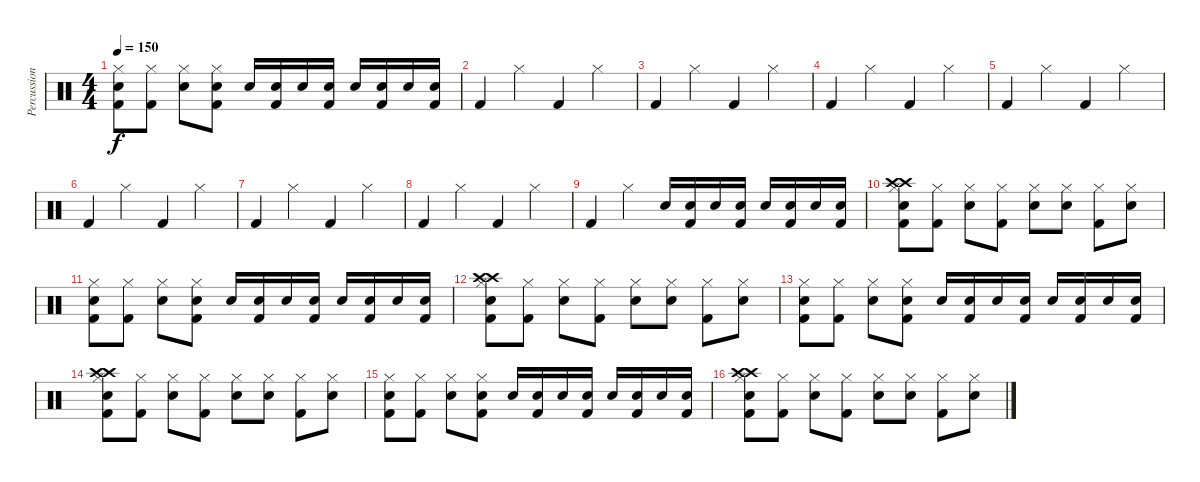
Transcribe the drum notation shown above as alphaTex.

\track ("Percussion" "Percussion") {instrument percussion}
\staff {score}
\articulation defaults
\ts (4 4)
\tempo 150
\clef neutral
\ks c
("Hi-Hat (closed)" "Electric Snare (hit)" "Kick (hit) 2").8{dy f} ("Hi-Hat (closed)" "Kick (hit) 2").8 ("Hi-Hat (closed)" "Snare (hit) 2").8 ("Hi-Hat (closed)" "Electric Snare (hit)" "Kick (hit) 2").8 "Electric Snare (hit)".16 ("Electric Snare (hit)" "Kick (hit) 2").16 "Electric Snare (hit)".16 ("Electric Snare (hit)" "Kick (hit) 2").16 "Electric Snare (hit)".16 ("Electric Snare (hit)" "Kick (hit) 2").16 "Electric Snare (hit)".16 ("Electric Snare (hit)" "Kick (hit) 2").16 |
"Kick (hit) 2".4 "Hi-Hat (closed)".4 "Kick (hit) 2".4 "Hi-Hat (closed)".4 |
"Kick (hit) 2".4 "Hi-Hat (closed)".4 "Kick (hit) 2".4 "Hi-Hat (closed)".4 |
"Kick (hit) 2".4 "Hi-Hat (closed)".4 "Kick (hit) 2".4 "Hi-Hat (closed)".4 |
"Kick (hit) 2".4 "Hi-Hat (closed)".4 "Kick (hit) 2".4 "Hi-Hat (closed)".4 |
"Kick (hit) 2".4 "Hi-Hat (closed)".4 "Kick (hit) 2".4 "Hi-Hat (closed)".4 |
"Kick (hit) 2".4 "Hi-Hat (closed)".4 "Kick (hit) 2".4 "Hi-Hat (closed)".4 |
"Kick (hit) 2".4 "Hi-Hat (closed)".4 "Kick (hit) 2".4 "Hi-Hat (closed)".4 |
"Kick (hit) 2".4 "Hi-Hat (closed)".4 "Electric Snare (hit)".16 ("Kick (hit) 2" "Electric Snare (hit)").16 "Electric Snare (hit)".16 ("Kick (hit) 2" "Electric Snare (hit)").16 "Electric Snare (hit)".16 ("Kick (hit) 2" "Electric Snare (hit)").16 "Electric Snare (hit)".16 ("Kick (hit) 2" "Electric Snare (hit)").16 |
("Crash high (hit)" "Crash high (hit)" "Hi-Hat (closed)" "Snare (hit) 2" "Kick (hit) 2").8 ("Hi-Hat (closed)" "Kick (hit) 2").8 ("Hi-Hat (closed)" "Electric Snare (hit)").8 ("Hi-Hat (closed)" "Kick (hit) 2").8 ("Hi-Hat (closed)" "Snare (hit) 2").8 ("Hi-Hat (closed)" "Electric Snare (hit)").8 ("Hi-Hat (closed)" "Kick (hit) 2").8 ("Hi-Hat (closed)" "Snare (hit) 2").8 |
("Hi-Hat (closed)" "Electric Snare (hit)" "Kick (hit) 2").8 ("Hi-Hat (closed)" "Kick (hit) 2").8 ("Hi-Hat (closed)" "Snare (hit) 2").8 ("Hi-Hat (closed)" "Electric Snare (hit)" "Kick (hit) 2").8 "Electric Snare (hit)".16 ("Electric Snare (hit)" "Kick (hit) 2").16 "Electric Snare (hit)".16 ("Electric Snare (hit)" "Kick (hit) 2").16 "Electric Snare (hit)".16 ("Electric Snare (hit)" "Kick (hit) 2").16 "Electric Snare (hit)".16 ("Electric Snare (hit)" "Kick (hit) 2").16 |
("Crash high (hit)" "Crash high (hit)" "Hi-Hat (closed)" "Snare (hit) 2" "Kick (hit) 2").8 ("Hi-Hat (closed)" "Kick (hit) 2").8 ("Hi-Hat (closed)" "Electric Snare (hit)").8 ("Hi-Hat (closed)" "Kick (hit) 2").8 ("Hi-Hat (closed)" "Snare (hit) 2").8 ("Hi-Hat (closed)" "Electric Snare (hit)").8 ("Hi-Hat (closed)" "Kick (hit) 2").8 ("Hi-Hat (closed)" "Snare (hit) 2").8 |
("Hi-Hat (closed)" "Electric Snare (hit)" "Kick (hit) 2").8 ("Hi-Hat (closed)" "Kick (hit) 2").8 ("Hi-Hat (closed)" "Snare (hit) 2").8 ("Hi-Hat (closed)" "Electric Snare (hit)" "Kick (hit) 2").8 "Electric Snare (hit)".16 ("Electric Snare (hit)" "Kick (hit) 2").16 "Electric Snare (hit)".16 ("Electric Snare (hit)" "Kick (hit) 2").16 "Electric Snare (hit)".16 ("Electric Snare (hit)" "Kick (hit) 2").16 "Electric Snare (hit)".16 ("Electric Snare (hit)" "Kick (hit) 2").16 |
("Crash high (hit)" "Crash high (hit)" "Hi-Hat (closed)" "Snare (hit) 2" "Kick (hit) 2").8 ("Hi-Hat (closed)" "Kick (hit) 2").8 ("Hi-Hat (closed)" "Electric Snare (hit)").8 ("Hi-Hat (closed)" "Kick (hit) 2").8 ("Hi-Hat (closed)" "Snare (hit) 2").8 ("Hi-Hat (closed)" "Electric Snare (hit)").8 ("Hi-Hat (closed)" "Kick (hit) 2").8 ("Hi-Hat (closed)" "Snare (hit) 2").8 |
("Hi-Hat (closed)" "Electric Snare (hit)" "Kick (hit) 2").8 ("Hi-Hat (closed)" "Kick (hit) 2").8 ("Hi-Hat (closed)" "Snare (hit) 2").8 ("Hi-Hat (closed)" "Electric Snare (hit)" "Kick (hit) 2").8 "Electric Snare (hit)".16 ("Electric Snare (hit)" "Kick (hit) 2").16 "Electric Snare (hit)".16 ("Electric Snare (hit)" "Kick (hit) 2").16 "Electric Snare (hit)".16 ("Electric Snare (hit)" "Kick (hit) 2").16 "Electric Snare (hit)".16 ("Electric Snare (hit)" "Kick (hit) 2").16 |
("Crash high (hit)" "Crash high (hit)" "Hi-Hat (closed)" "Snare (hit) 2" "Kick (hit) 2").8 ("Hi-Hat (closed)" "Kick (hit) 2").8 ("Hi-Hat (closed)" "Electric Snare (hit)").8 ("Hi-Hat (closed)" "Kick (hit) 2").8 ("Hi-Hat (closed)" "Snare (hit) 2").8 ("Hi-Hat (closed)" "Electric Snare (hit)").8 ("Hi-Hat (closed)" "Kick (hit) 2").8 ("Hi-Hat (closed)" "Snare (hit) 2").8
